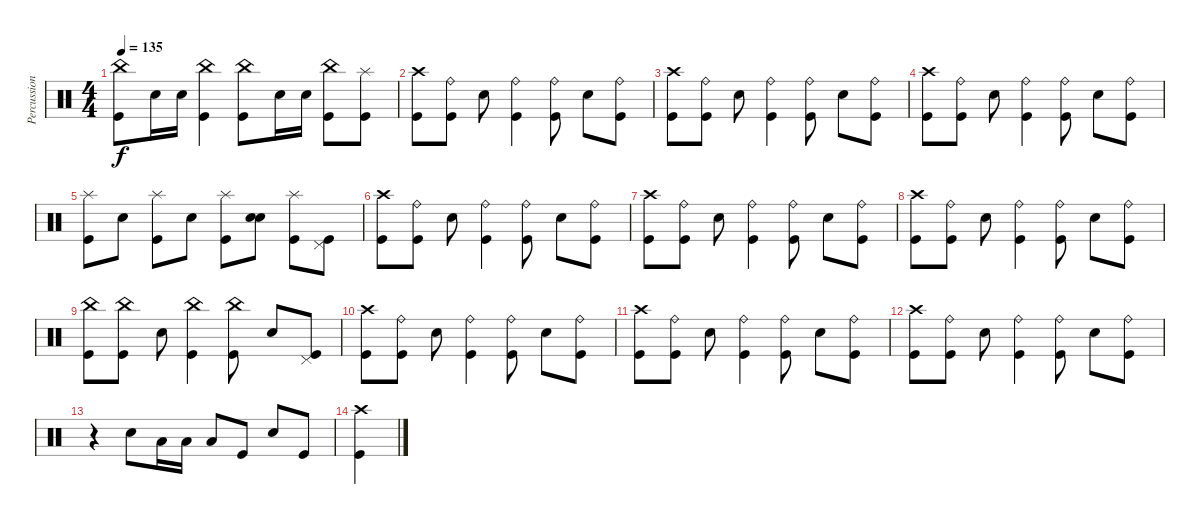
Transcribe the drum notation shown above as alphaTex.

\track ("Percussion" "Percussion") {instrument percussion}
\staff {score}
\articulation defaults
\ts (4 4)
\tempo 135
\clef neutral
\ks c
("China (hit)" "Kick (hit)").8{dy f} "Electric Snare (hit)".16 "Electric Snare (hit)".16 ("China (hit)" "Kick (hit)").4 ("China (hit)" "Kick (hit)").8 "Electric Snare (hit)".16 "Electric Snare (hit)".16 ("China (hit)" "Kick (hit)").8 ("Splash (hit)" "Kick (hit)").8 |
("Crash high (hit)" "Kick (hit)").8 ("Ride (bell)" "Kick (hit)").8 "Electric Snare (hit)".8 ("Ride (bell)" "Kick (hit)").4 ("Ride (bell)" "Kick (hit)").8 "Electric Snare (hit)".8 ("Ride (bell)" "Kick (hit)").8 |
("Crash high (hit)" "Kick (hit)").8 ("Ride (bell)" "Kick (hit)").8 "Electric Snare (hit)".8 ("Ride (bell)" "Kick (hit)").4 ("Ride (bell)" "Kick (hit)").8 "Electric Snare (hit)".8 ("Ride (bell)" "Kick (hit)").8 |
("Crash high (hit)" "Kick (hit)").8 ("Ride (bell)" "Kick (hit)").8 "Electric Snare (hit)".8 ("Ride (bell)" "Kick (hit)").4 ("Ride (bell)" "Kick (hit)").8 "Electric Snare (hit)".8 ("Ride (bell)" "Kick (hit)").8 |
("Splash (hit)" "Kick (hit)").8 "Electric Snare (hit)".8 ("Splash (hit)" "Kick (hit)").8 "Electric Snare (hit)".8 ("Splash (hit)" "Kick (hit)").8 ("Snare (hit)" "Electric Snare (hit)").8 ("Splash (hit)" "Kick (hit)").8 ("Pedal Hi-Hat (hit)" "Kick (hit)").8 |
("Crash high (hit)" "Kick (hit)").8 ("Ride (bell)" "Kick (hit)").8 "Electric Snare (hit)".8 ("Ride (bell)" "Kick (hit)").4 ("Ride (bell)" "Kick (hit)").8 "Electric Snare (hit)".8 ("Ride (bell)" "Kick (hit)").8 |
("Crash high (hit)" "Kick (hit)").8 ("Ride (bell)" "Kick (hit)").8 "Electric Snare (hit)".8 ("Ride (bell)" "Kick (hit)").4 ("Ride (bell)" "Kick (hit)").8 "Electric Snare (hit)".8 ("Ride (bell)" "Kick (hit)").8 |
("Crash high (hit)" "Kick (hit)").8 ("Ride (bell)" "Kick (hit)").8 "Electric Snare (hit)".8 ("Ride (bell)" "Kick (hit)").4 ("Ride (bell)" "Kick (hit)").8 "Electric Snare (hit)".8 ("Ride (bell)" "Kick (hit)").8 |
("Kick (hit)" "China (hit)").8 ("Kick (hit)" "China (hit)").8 "Electric Snare (hit)".8 ("Kick (hit)" "China (hit)").4 ("Kick (hit)" "China (hit)").8 "Electric Snare (hit)".8 ("Pedal Hi-Hat (hit)" "Kick (hit)").8 |
("Crash high (hit)" "Kick (hit)").8 ("Ride (bell)" "Kick (hit)").8 "Electric Snare (hit)".8 ("Ride (bell)" "Kick (hit)").4 ("Ride (bell)" "Kick (hit)").8 "Electric Snare (hit)".8 ("Ride (bell)" "Kick (hit)").8 |
("Crash high (hit)" "Kick (hit)").8 ("Ride (bell)" "Kick (hit)").8 "Electric Snare (hit)".8 ("Ride (bell)" "Kick (hit)").4 ("Ride (bell)" "Kick (hit)").8 "Electric Snare (hit)".8 ("Ride (bell)" "Kick (hit)").8 |
("Crash high (hit)" "Kick (hit)").8 ("Ride (bell)" "Kick (hit)").8 "Electric Snare (hit)".8 ("Ride (bell)" "Kick (hit)").4 ("Ride (bell)" "Kick (hit)").8 "Electric Snare (hit)".8 ("Ride (bell)" "Kick (hit)").8 |
r.4 "Electric Snare (hit)".8 "Low Tom (hit)".16 "Low Tom (hit)".16 "Low Tom (hit)".8 "Kick (hit)".8 "Electric Snare (hit)".8 "Kick (hit)".8 |
("Crash high (hit)" "Kick (hit)").4
